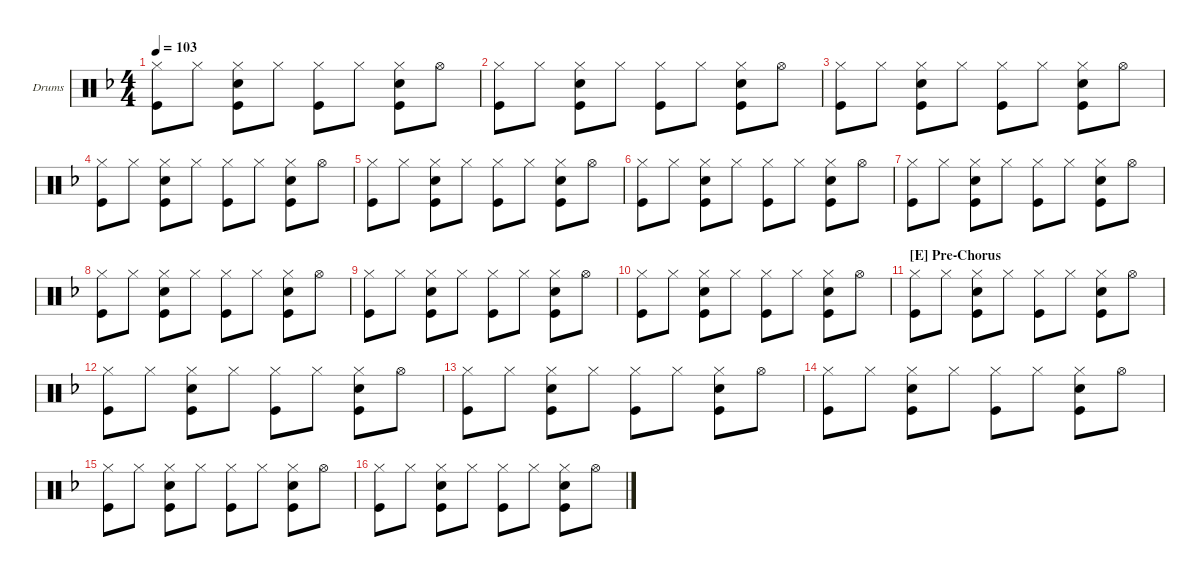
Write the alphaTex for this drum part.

\hideDynamics
\bracketExtendMode groupsimilarinstruments
\firstSystemTrackNameOrientation horizontal
\otherSystemsTrackNameOrientation horizontal
\track ("Drumkit" "Drums") {multiBarRest instrument percussion}
\staff {score}
\articulation defaults
\ts (4 4)
\tempo 103
\clef neutral
\ks f
("Hi-Hat (closed)" "Kick (hit)").8{dy f} "Hi-Hat (closed)".8 ("Hi-Hat (closed)" "Snare (hit) 2" "Kick (hit)").8 "Hi-Hat (closed)".8 ("Hi-Hat (closed)" "Kick (hit)").8 "Hi-Hat (closed)".8 ("Hi-Hat (closed)" "Snare (hit) 2" "Kick (hit)").8 "Hi-Hat (open)".8 |
("Hi-Hat (closed)" "Kick (hit)").8 "Hi-Hat (closed)".8 ("Hi-Hat (closed)" "Snare (hit) 2" "Kick (hit)").8 "Hi-Hat (closed)".8 ("Hi-Hat (closed)" "Kick (hit)").8 "Hi-Hat (closed)".8 ("Hi-Hat (closed)" "Snare (hit) 2" "Kick (hit)").8 "Hi-Hat (open)".8 |
("Hi-Hat (closed)" "Kick (hit)").8 "Hi-Hat (closed)".8 ("Hi-Hat (closed)" "Snare (hit) 2" "Kick (hit)").8 "Hi-Hat (closed)".8 ("Hi-Hat (closed)" "Kick (hit)").8 "Hi-Hat (closed)".8 ("Hi-Hat (closed)" "Snare (hit) 2" "Kick (hit)").8 "Hi-Hat (open)".8 |
("Hi-Hat (closed)" "Kick (hit)").8 "Hi-Hat (closed)".8 ("Hi-Hat (closed)" "Snare (hit) 2" "Kick (hit)").8 "Hi-Hat (closed)".8 ("Hi-Hat (closed)" "Kick (hit)").8 "Hi-Hat (closed)".8 ("Hi-Hat (closed)" "Snare (hit) 2" "Kick (hit)").8 "Hi-Hat (open)".8 |
("Hi-Hat (closed)" "Kick (hit)").8 "Hi-Hat (closed)".8 ("Hi-Hat (closed)" "Snare (hit) 2" "Kick (hit)").8 "Hi-Hat (closed)".8 ("Hi-Hat (closed)" "Kick (hit)").8 "Hi-Hat (closed)".8 ("Hi-Hat (closed)" "Snare (hit) 2" "Kick (hit)").8 "Hi-Hat (open)".8 |
("Hi-Hat (closed)" "Kick (hit)").8 "Hi-Hat (closed)".8 ("Hi-Hat (closed)" "Snare (hit) 2" "Kick (hit)").8 "Hi-Hat (closed)".8 ("Hi-Hat (closed)" "Kick (hit)").8 "Hi-Hat (closed)".8 ("Hi-Hat (closed)" "Snare (hit) 2" "Kick (hit)").8 "Hi-Hat (open)".8 |
("Hi-Hat (closed)" "Kick (hit)").8 "Hi-Hat (closed)".8 ("Hi-Hat (closed)" "Snare (hit) 2" "Kick (hit)").8 "Hi-Hat (closed)".8 ("Hi-Hat (closed)" "Kick (hit)").8 "Hi-Hat (closed)".8 ("Hi-Hat (closed)" "Snare (hit) 2" "Kick (hit)").8 "Hi-Hat (open)".8 |
("Hi-Hat (closed)" "Kick (hit)").8 "Hi-Hat (closed)".8 ("Hi-Hat (closed)" "Snare (hit) 2" "Kick (hit)").8 "Hi-Hat (closed)".8 ("Hi-Hat (closed)" "Kick (hit)").8 "Hi-Hat (closed)".8 ("Hi-Hat (closed)" "Snare (hit) 2" "Kick (hit)").8 "Hi-Hat (open)".8 |
("Hi-Hat (closed)" "Kick (hit)").8 "Hi-Hat (closed)".8 ("Hi-Hat (closed)" "Snare (hit) 2" "Kick (hit)").8 "Hi-Hat (closed)".8 ("Hi-Hat (closed)" "Kick (hit)").8 "Hi-Hat (closed)".8 ("Hi-Hat (closed)" "Snare (hit) 2" "Kick (hit)").8 "Hi-Hat (open)".8 |
("Hi-Hat (closed)" "Kick (hit)").8 "Hi-Hat (closed)".8 ("Hi-Hat (closed)" "Snare (hit) 2" "Kick (hit)").8 "Hi-Hat (closed)".8 ("Hi-Hat (closed)" "Kick (hit)").8 "Hi-Hat (closed)".8 ("Hi-Hat (closed)" "Snare (hit) 2" "Kick (hit)").8 "Hi-Hat (open)".8 |
\section ("E" "Pre-Chorus")
("Hi-Hat (closed)" "Kick (hit)").8 "Hi-Hat (closed)".8 ("Hi-Hat (closed)" "Snare (hit) 2" "Kick (hit)").8 "Hi-Hat (closed)".8 ("Hi-Hat (closed)" "Kick (hit)").8 "Hi-Hat (closed)".8 ("Hi-Hat (closed)" "Snare (hit) 2" "Kick (hit)").8 "Hi-Hat (open)".8 |
("Hi-Hat (closed)" "Kick (hit)").8 "Hi-Hat (closed)".8 ("Hi-Hat (closed)" "Snare (hit) 2" "Kick (hit)").8 "Hi-Hat (closed)".8 ("Hi-Hat (closed)" "Kick (hit)").8 "Hi-Hat (closed)".8 ("Hi-Hat (closed)" "Snare (hit) 2" "Kick (hit)").8 "Hi-Hat (open)".8 |
("Hi-Hat (closed)" "Kick (hit)").8 "Hi-Hat (closed)".8 ("Hi-Hat (closed)" "Snare (hit) 2" "Kick (hit)").8 "Hi-Hat (closed)".8 ("Hi-Hat (closed)" "Kick (hit)").8 "Hi-Hat (closed)".8 ("Hi-Hat (closed)" "Snare (hit) 2" "Kick (hit)").8 "Hi-Hat (open)".8 |
("Hi-Hat (closed)" "Kick (hit)").8 "Hi-Hat (closed)".8 ("Hi-Hat (closed)" "Snare (hit) 2" "Kick (hit)").8 "Hi-Hat (closed)".8 ("Hi-Hat (closed)" "Kick (hit)").8 "Hi-Hat (closed)".8 ("Hi-Hat (closed)" "Snare (hit) 2" "Kick (hit)").8 "Hi-Hat (open)".8 |
("Hi-Hat (closed)" "Kick (hit)").8 "Hi-Hat (closed)".8 ("Hi-Hat (closed)" "Snare (hit) 2" "Kick (hit)").8 "Hi-Hat (closed)".8 ("Hi-Hat (closed)" "Kick (hit)").8 "Hi-Hat (closed)".8 ("Hi-Hat (closed)" "Snare (hit) 2" "Kick (hit)").8 "Hi-Hat (open)".8 |
("Hi-Hat (closed)" "Kick (hit)").8 "Hi-Hat (closed)".8 ("Hi-Hat (closed)" "Snare (hit) 2" "Kick (hit)").8 "Hi-Hat (closed)".8 ("Hi-Hat (closed)" "Kick (hit)").8 "Hi-Hat (closed)".8 ("Hi-Hat (closed)" "Snare (hit) 2" "Kick (hit)").8 "Hi-Hat (open)".8
